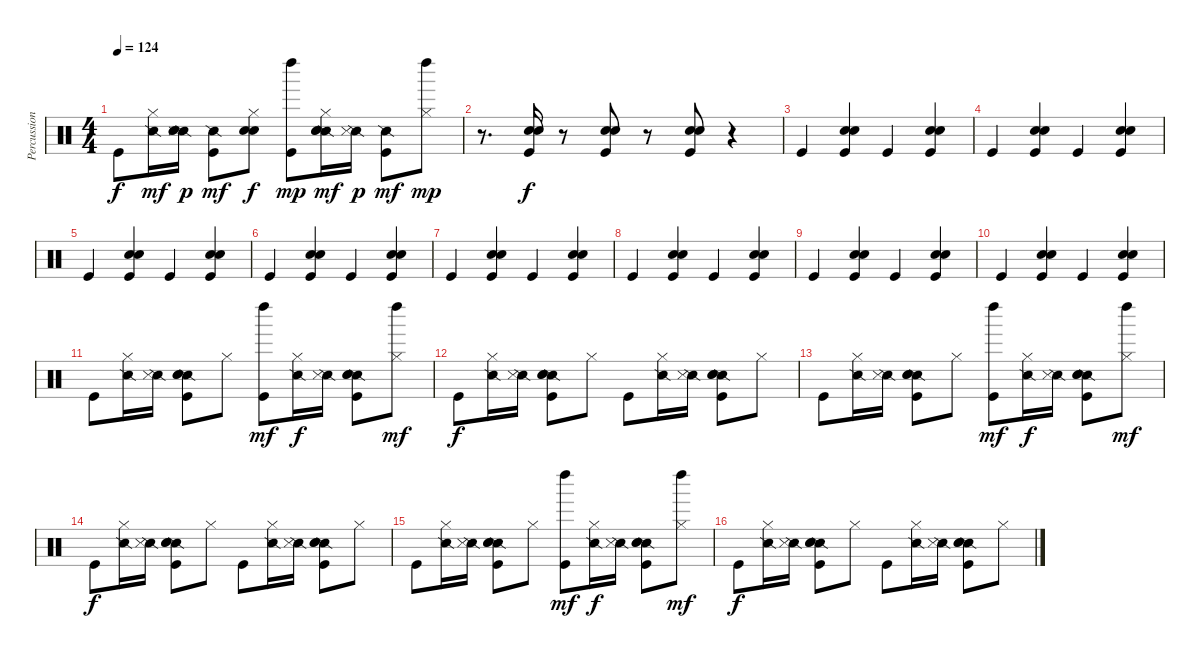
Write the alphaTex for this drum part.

\track ("Percussion" "Percussion") {instrument percussion}
\staff {score}
\articulation defaults
\ts (4 4)
\tempo 124
\clef neutral
\ks c "Kick (hit)".8{dy f}
("Snare (side stick) 2" "Hi-Hat (closed)").16{dy mf} ("Snare (side stick) 2" "Snare (side stick) 3" "Snare (hit) 2" "Hand Clap (hit)").16{dy p} ("Snare (side stick) 2" "Kick (hit)").8{dy mf} ("Hi-Hat (closed)" "Snare (hit) 2" "Hand Clap (hit)").8{dy f} ("Left Maraca (hit)" "Kick (hit)").8{dy mp} ("Snare (side stick) 2" "Hi-Hat (closed)" "Snare (hit) 2" "Hand Clap (hit)").16{dy mf} ("Snare (side stick) 2" "Snare (side stick) 3").16{dy p} ("Snare (side stick) 2" "Kick (hit)").8{dy mf} ("Left Maraca (hit)" "Hi-Hat (closed)").8{dy mp} |
r.8{d} ("Snare (hit) 2" "Hand Clap (hit)" "Kick (hit)").16{dy f} r.8 ("Snare (hit) 2" "Hand Clap (hit)" "Kick (hit)").8 r.8 ("Snare (hit) 2" "Hand Clap (hit)" "Kick (hit)").8 r.4 |
"Kick (hit)".4 ("Snare (hit) 2" "Hand Clap (hit)" "Kick (hit)").4 "Kick (hit)".4 ("Snare (hit) 2" "Hand Clap (hit)" "Kick (hit)").4 |
"Kick (hit)".4 ("Snare (hit) 2" "Hand Clap (hit)" "Kick (hit)").4 "Kick (hit)".4 ("Snare (hit) 2" "Hand Clap (hit)" "Kick (hit)").4 |
"Kick (hit)".4 ("Snare (hit) 2" "Hand Clap (hit)" "Kick (hit)").4 "Kick (hit)".4 ("Snare (hit) 2" "Hand Clap (hit)" "Kick (hit)").4 |
"Kick (hit)".4 ("Snare (hit) 2" "Hand Clap (hit)" "Kick (hit)").4 "Kick (hit)".4 ("Snare (hit) 2" "Hand Clap (hit)" "Kick (hit)").4 |
"Kick (hit)".4 ("Snare (hit) 2" "Hand Clap (hit)" "Kick (hit)").4 "Kick (hit)".4 ("Snare (hit) 2" "Hand Clap (hit)" "Kick (hit)").4 |
"Kick (hit)".4 ("Snare (hit) 2" "Hand Clap (hit)" "Kick (hit)").4 "Kick (hit)".4 ("Snare (hit) 2" "Hand Clap (hit)" "Kick (hit)").4 |
"Kick (hit)".4 ("Snare (hit) 2" "Hand Clap (hit)" "Kick (hit)").4 "Kick (hit)".4 ("Snare (hit) 2" "Hand Clap (hit)" "Kick (hit)").4 |
"Kick (hit)".4 ("Snare (hit) 2" "Hand Clap (hit)" "Kick (hit)").4 "Kick (hit)".4 ("Snare (hit) 2" "Hand Clap (hit)" "Kick (hit)").4 |
"Kick (hit)".8 ("Snare (side stick) 2" "Hi-Hat (closed)").16 ("Snare (side stick) 2" "Snare (side stick) 3").16 ("Snare (side stick) 2" "Snare (hit) 2" "Hand Clap (hit)" "Kick (hit)").8 "Hi-Hat (closed)".8 ("Left Maraca (hit)" "Kick (hit)").8{dy mf} ("Snare (side stick) 2" "Hi-Hat (closed)").16{dy f} ("Snare (side stick) 2" "Snare (side stick) 3").16 ("Snare (side stick) 2" "Snare (hit) 2" "Hand Clap (hit)" "Kick (hit)").8 ("Left Maraca (hit)" "Hi-Hat (closed)").8{dy mf} |
"Kick (hit)".8{dy f} ("Snare (side stick) 2" "Hi-Hat (closed)").16 ("Snare (side stick) 2" "Snare (side stick) 3").16 ("Snare (side stick) 2" "Snare (hit) 2" "Hand Clap (hit)" "Kick (hit)").8 "Hi-Hat (closed)".8 "Kick (hit)".8 ("Snare (side stick) 2" "Hi-Hat (closed)").16 ("Snare (side stick) 2" "Snare (side stick) 3").16 ("Snare (side stick) 2" "Snare (hit) 2" "Hand Clap (hit)" "Kick (hit)").8 "Hi-Hat (closed)".8 |
"Kick (hit)".8 ("Snare (side stick) 2" "Hi-Hat (closed)").16 ("Snare (side stick) 2" "Snare (side stick) 3").16 ("Snare (side stick) 2" "Snare (hit) 2" "Hand Clap (hit)" "Kick (hit)").8 "Hi-Hat (closed)".8 ("Left Maraca (hit)" "Kick (hit)").8{dy mf} ("Snare (side stick) 2" "Hi-Hat (closed)").16{dy f} ("Snare (side stick) 2" "Snare (side stick) 3").16 ("Snare (side stick) 2" "Snare (hit) 2" "Hand Clap (hit)" "Kick (hit)").8 ("Left Maraca (hit)" "Hi-Hat (closed)").8{dy mf} |
"Kick (hit)".8{dy f} ("Snare (side stick) 2" "Hi-Hat (closed)").16 ("Snare (side stick) 2" "Snare (side stick) 3").16 ("Snare (side stick) 2" "Snare (hit) 2" "Hand Clap (hit)" "Kick (hit)").8 "Hi-Hat (closed)".8 "Kick (hit)".8 ("Snare (side stick) 2" "Hi-Hat (closed)").16 ("Snare (side stick) 2" "Snare (side stick) 3").16 ("Snare (side stick) 2" "Snare (hit) 2" "Hand Clap (hit)" "Kick (hit)").8 "Hi-Hat (closed)".8 |
"Kick (hit)".8 ("Snare (side stick) 2" "Hi-Hat (closed)").16 ("Snare (side stick) 2" "Snare (side stick) 3").16 ("Snare (side stick) 2" "Snare (hit) 2" "Hand Clap (hit)" "Kick (hit)").8 "Hi-Hat (closed)".8 ("Left Maraca (hit)" "Kick (hit)").8{dy mf} ("Snare (side stick) 2" "Hi-Hat (closed)").16{dy f} ("Snare (side stick) 2" "Snare (side stick) 3").16 ("Snare (side stick) 2" "Snare (hit) 2" "Hand Clap (hit)" "Kick (hit)").8 ("Left Maraca (hit)" "Hi-Hat (closed)").8{dy mf} |
"Kick (hit)".8{dy f} ("Snare (side stick) 2" "Hi-Hat (closed)").16 ("Snare (side stick) 2" "Snare (side stick) 3").16 ("Snare (side stick) 2" "Snare (hit) 2" "Hand Clap (hit)" "Kick (hit)").8 "Hi-Hat (closed)".8 "Kick (hit)".8 ("Snare (side stick) 2" "Hi-Hat (closed)").16 ("Snare (side stick) 2" "Snare (side stick) 3").16 ("Snare (side stick) 2" "Snare (hit) 2" "Hand Clap (hit)" "Kick (hit)").8 "Hi-Hat (closed)".8
